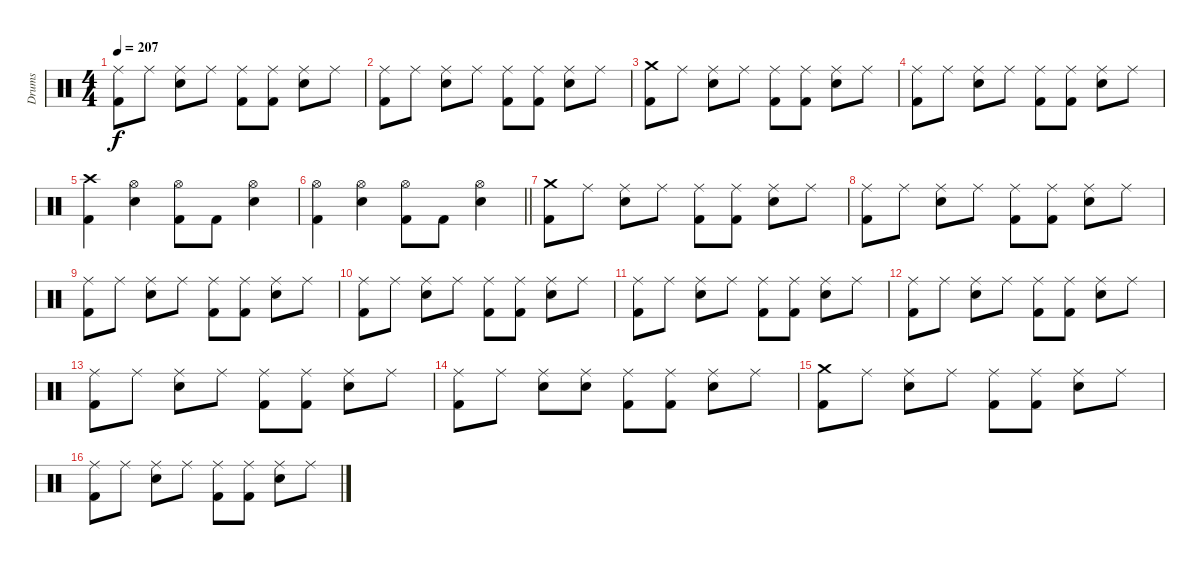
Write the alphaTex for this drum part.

\track ("Drums" "Drums") {instrument percussion}
\staff {score}
\articulation defaults
\ts (4 4)
\tempo 207
\clef neutral
\ks c
("Ride (middle)" "Kick (hit) 2").8{dy f} "Ride (middle)".8 ("Ride (middle)" "Electric Snare (hit)").8 "Ride (middle)".8 ("Ride (middle)" "Kick (hit) 2").8 ("Ride (middle)" "Kick (hit) 2").8 ("Ride (middle)" "Electric Snare (hit)").8 "Ride (middle)".8 |
("Ride (middle)" "Kick (hit) 2").8 "Ride (middle)".8 ("Ride (middle)" "Electric Snare (hit)").8 "Ride (middle)".8 ("Ride (middle)" "Kick (hit) 2").8 ("Ride (middle)" "Kick (hit) 2").8 ("Ride (middle)" "Electric Snare (hit)").8 "Ride (middle)".8 |
("Crash medium (hit)" "Kick (hit) 2").8 "Ride (middle)".8 ("Ride (middle)" "Electric Snare (hit)").8 "Ride (middle)".8 ("Ride (middle)" "Kick (hit) 2").8 ("Ride (middle)" "Kick (hit) 2").8 ("Ride (middle)" "Electric Snare (hit)").8 "Ride (middle)".8 |
("Ride (middle)" "Kick (hit) 2").8 "Ride (middle)".8 ("Ride (middle)" "Electric Snare (hit)").8 "Ride (middle)".8 ("Ride (middle)" "Kick (hit) 2").8 ("Ride (middle)" "Kick (hit) 2").8 ("Ride (middle)" "Electric Snare (hit)").8 "Ride (middle)".8 |
("Crash high (hit)" "Kick (hit) 2").4 ("Hi-Hat (open)" "Electric Snare (hit)").4 ("Hi-Hat (open)" "Kick (hit) 2").8 "Kick (hit) 2".8 ("Hi-Hat (open)" "Electric Snare (hit)").4 |
\barLineRight lightlight
("Hi-Hat (open)" "Kick (hit) 2").4 ("Hi-Hat (open)" "Electric Snare (hit)").4 ("Hi-Hat (open)" "Kick (hit) 2").8 "Kick (hit) 2".8 ("Hi-Hat (open)" "Electric Snare (hit)").4 |
("Crash medium (hit)" "Kick (hit) 2").8 "Ride (middle)".8 ("Ride (middle)" "Electric Snare (hit)").8 "Ride (middle)".8 ("Ride (middle)" "Kick (hit) 2").8 ("Ride (middle)" "Kick (hit) 2").8 ("Ride (middle)" "Electric Snare (hit)").8 "Ride (middle)".8 |
("Ride (middle)" "Kick (hit) 2").8 "Ride (middle)".8 ("Ride (middle)" "Electric Snare (hit)").8 "Ride (middle)".8 ("Ride (middle)" "Kick (hit) 2").8 ("Ride (middle)" "Kick (hit) 2").8 ("Ride (middle)" "Electric Snare (hit)").8 "Ride (middle)".8 |
("Ride (middle)" "Kick (hit) 2").8 "Ride (middle)".8 ("Ride (middle)" "Electric Snare (hit)").8 "Ride (middle)".8 ("Ride (middle)" "Kick (hit) 2").8 ("Ride (middle)" "Kick (hit) 2").8 ("Ride (middle)" "Electric Snare (hit)").8 "Ride (middle)".8 |
("Ride (middle)" "Kick (hit) 2").8 "Ride (middle)".8 ("Ride (middle)" "Electric Snare (hit)").8 "Ride (middle)".8 ("Ride (middle)" "Kick (hit) 2").8 ("Ride (middle)" "Kick (hit) 2").8 ("Ride (middle)" "Electric Snare (hit)").8 "Ride (middle)".8 |
("Ride (middle)" "Kick (hit) 2").8 "Ride (middle)".8 ("Ride (middle)" "Electric Snare (hit)").8 "Ride (middle)".8 ("Ride (middle)" "Kick (hit) 2").8 ("Ride (middle)" "Kick (hit) 2").8 ("Ride (middle)" "Electric Snare (hit)").8 "Ride (middle)".8 |
("Ride (middle)" "Kick (hit) 2").8 "Ride (middle)".8 ("Ride (middle)" "Electric Snare (hit)").8 "Ride (middle)".8 ("Ride (middle)" "Kick (hit) 2").8 ("Ride (middle)" "Kick (hit) 2").8 ("Ride (middle)" "Electric Snare (hit)").8 "Ride (middle)".8 |
("Ride (middle)" "Kick (hit) 2").8 "Ride (middle)".8 ("Ride (middle)" "Electric Snare (hit)").8 "Ride (middle)".8 ("Ride (middle)" "Kick (hit) 2").8 ("Ride (middle)" "Kick (hit) 2").8 ("Ride (middle)" "Electric Snare (hit)").8 "Ride (middle)".8 |
("Ride (middle)" "Kick (hit) 2").8 "Ride (middle)".8 ("Ride (middle)" "Electric Snare (hit)").8 ("Ride (middle)" "Electric Snare (hit)").8 ("Ride (middle)" "Kick (hit) 2").8 ("Ride (middle)" "Kick (hit) 2").8 ("Ride (middle)" "Electric Snare (hit)").8 "Ride (middle)".8 |
("Crash medium (hit)" "Kick (hit) 2").8 "Ride (middle)".8 ("Ride (middle)" "Electric Snare (hit)").8 "Ride (middle)".8 ("Ride (middle)" "Kick (hit) 2").8 ("Ride (middle)" "Kick (hit) 2").8 ("Ride (middle)" "Electric Snare (hit)").8 "Ride (middle)".8 |
("Ride (middle)" "Kick (hit) 2").8 "Ride (middle)".8 ("Ride (middle)" "Electric Snare (hit)").8 "Ride (middle)".8 ("Ride (middle)" "Kick (hit) 2").8 ("Ride (middle)" "Kick (hit) 2").8 ("Ride (middle)" "Electric Snare (hit)").8 "Ride (middle)".8
